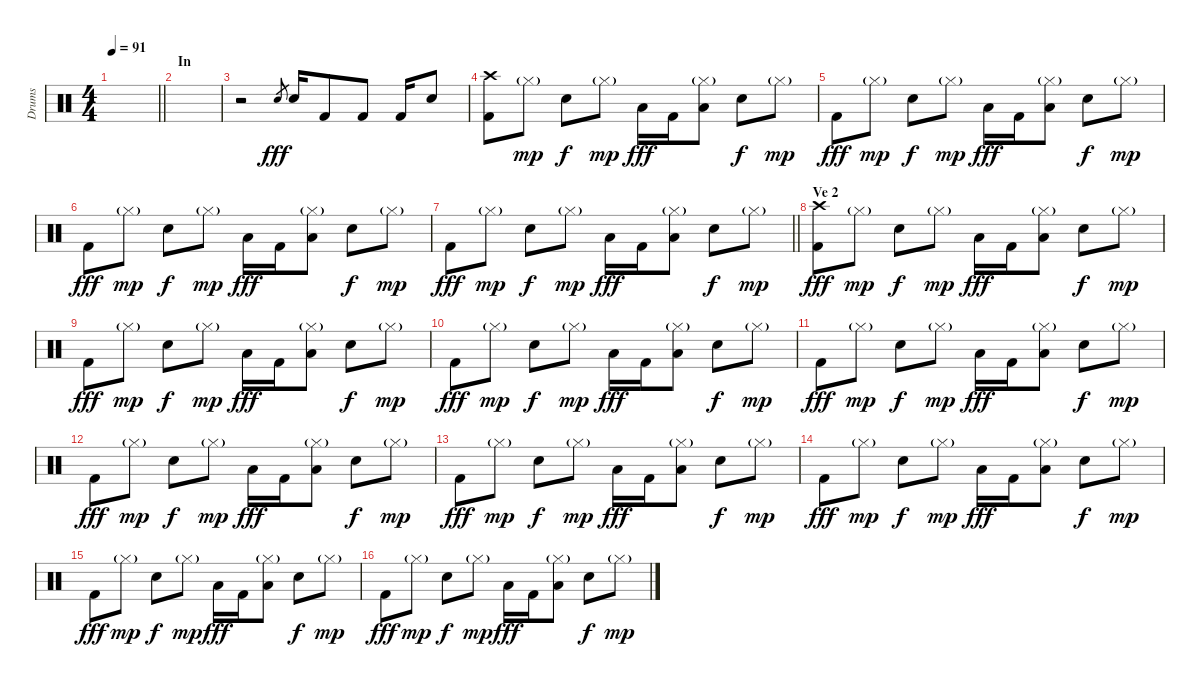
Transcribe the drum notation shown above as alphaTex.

\track ("Drums" "Drums") {instrument percussion}
\staff {score}
\articulation defaults
\ts (4 4)
\tempo 91
\clef neutral
\barLineRight lightlight
\ks c
|
\section ("" "In")
|
r.2{volume 16} "Electric Snare (hit)".8{gr dy fff} "Electric Snare (hit)".16 "Kick (hit) 2".8 "Kick (hit) 2".8 "Kick (hit) 2".16 "Electric Snare (hit)".8 |
("Crash high (hit)" "Kick (hit) 2").8 "Hi-Hat (closed)"{g}.8{dy mp} "Electric Snare (hit)".8{dy f} "Hi-Hat (closed)"{g}.8{dy mp} "Low Tom (hit)".16{dy fff} "Kick (hit) 2".16 ("Hi-Hat (closed)"{g} "Low Tom (hit)").8 "Electric Snare (hit)".8{dy f} "Hi-Hat (closed)"{g}.8{dy mp} |
"Kick (hit) 2".8{dy fff} "Hi-Hat (closed)"{g}.8{dy mp} "Electric Snare (hit)".8{dy f} "Hi-Hat (closed)"{g}.8{dy mp} "Low Tom (hit)".16{dy fff} "Kick (hit) 2".16 ("Hi-Hat (closed)"{g} "Low Tom (hit)").8 "Electric Snare (hit)".8{dy f} "Hi-Hat (closed)"{g}.8{dy mp} |
"Kick (hit) 2".8{dy fff} "Hi-Hat (closed)"{g}.8{dy mp} "Electric Snare (hit)".8{dy f} "Hi-Hat (closed)"{g}.8{dy mp} "Low Tom (hit)".16{dy fff} "Kick (hit) 2".16 ("Hi-Hat (closed)"{g} "Low Tom (hit)").8 "Electric Snare (hit)".8{dy f} "Hi-Hat (closed)"{g}.8{dy mp} |
\barLineRight lightlight "Kick (hit) 2".8{dy fff} "Hi-Hat (closed)"{g}.8{dy mp} "Electric Snare (hit)".8{dy f} "Hi-Hat (closed)"{g}.8{dy mp} "Low Tom (hit)".16{dy fff} "Kick (hit) 2".16
("Hi-Hat (closed)"{g} "Low Tom (hit)").8 "Electric Snare (hit)".8{dy f} "Hi-Hat (closed)"{g}.8{dy mp} |
\section ("" "Ve 2")
("Crash high (hit)" "Kick (hit) 2").8{dy fff} "Hi-Hat (closed)"{g}.8{dy mp} "Electric Snare (hit)".8{dy f} "Hi-Hat (closed)"{g}.8{dy mp} "Low Tom (hit)".16{dy fff} "Kick (hit) 2".16 ("Hi-Hat (closed)"{g} "Low Tom (hit)").8 "Electric Snare (hit)".8{dy f} "Hi-Hat (closed)"{g}.8{dy mp} |
"Kick (hit) 2".8{dy fff} "Hi-Hat (closed)"{g}.8{dy mp} "Electric Snare (hit)".8{dy f} "Hi-Hat (closed)"{g}.8{dy mp} "Low Tom (hit)".16{dy fff} "Kick (hit) 2".16 ("Hi-Hat (closed)"{g} "Low Tom (hit)").8 "Electric Snare (hit)".8{dy f} "Hi-Hat (closed)"{g}.8{dy mp} |
"Kick (hit) 2".8{dy fff} "Hi-Hat (closed)"{g}.8{dy mp} "Electric Snare (hit)".8{dy f} "Hi-Hat (closed)"{g}.8{dy mp} "Low Tom (hit)".16{dy fff} "Kick (hit) 2".16 ("Hi-Hat (closed)"{g} "Low Tom (hit)").8 "Electric Snare (hit)".8{dy f} "Hi-Hat (closed)"{g}.8{dy mp} |
"Kick (hit) 2".8{dy fff} "Hi-Hat (closed)"{g}.8{dy mp} "Electric Snare (hit)".8{dy f} "Hi-Hat (closed)"{g}.8{dy mp} "Low Tom (hit)".16{dy fff} "Kick (hit) 2".16 ("Hi-Hat (closed)"{g} "Low Tom (hit)").8 "Electric Snare (hit)".8{dy f} "Hi-Hat (closed)"{g}.8{dy mp} |
"Kick (hit) 2".8{dy fff} "Hi-Hat (closed)"{g}.8{dy mp} "Electric Snare (hit)".8{dy f} "Hi-Hat (closed)"{g}.8{dy mp} "Low Tom (hit)".16{dy fff} "Kick (hit) 2".16 ("Hi-Hat (closed)"{g} "Low Tom (hit)").8 "Electric Snare (hit)".8{dy f} "Hi-Hat (closed)"{g}.8{dy mp} |
"Kick (hit) 2".8{dy fff} "Hi-Hat (closed)"{g}.8{dy mp} "Electric Snare (hit)".8{dy f} "Hi-Hat (closed)"{g}.8{dy mp} "Low Tom (hit)".16{dy fff} "Kick (hit) 2".16 ("Hi-Hat (closed)"{g} "Low Tom (hit)").8 "Electric Snare (hit)".8{dy f} "Hi-Hat (closed)"{g}.8{dy mp} |
"Kick (hit) 2".8{dy fff} "Hi-Hat (closed)"{g}.8{dy mp} "Electric Snare (hit)".8{dy f} "Hi-Hat (closed)"{g}.8{dy mp} "Low Tom (hit)".16{dy fff} "Kick (hit) 2".16 ("Hi-Hat (closed)"{g} "Low Tom (hit)").8 "Electric Snare (hit)".8{dy f} "Hi-Hat (closed)"{g}.8{dy mp} |
"Kick (hit) 2".8{dy fff} "Hi-Hat (closed)"{g}.8{dy mp} "Electric Snare (hit)".8{dy f} "Hi-Hat (closed)"{g}.8{dy mp} "Low Tom (hit)".16{dy fff} "Kick (hit) 2".16 ("Hi-Hat (closed)"{g} "Low Tom (hit)").8 "Electric Snare (hit)".8{dy f} "Hi-Hat (closed)"{g}.8{dy mp} |
"Kick (hit) 2".8{dy fff} "Hi-Hat (closed)"{g}.8{dy mp} "Electric Snare (hit)".8{dy f} "Hi-Hat (closed)"{g}.8{dy mp} "Low Tom (hit)".16{dy fff} "Kick (hit) 2".16 ("Hi-Hat (closed)"{g} "Low Tom (hit)").8 "Electric Snare (hit)".8{dy f} "Hi-Hat (closed)"{g}.8{dy mp}
